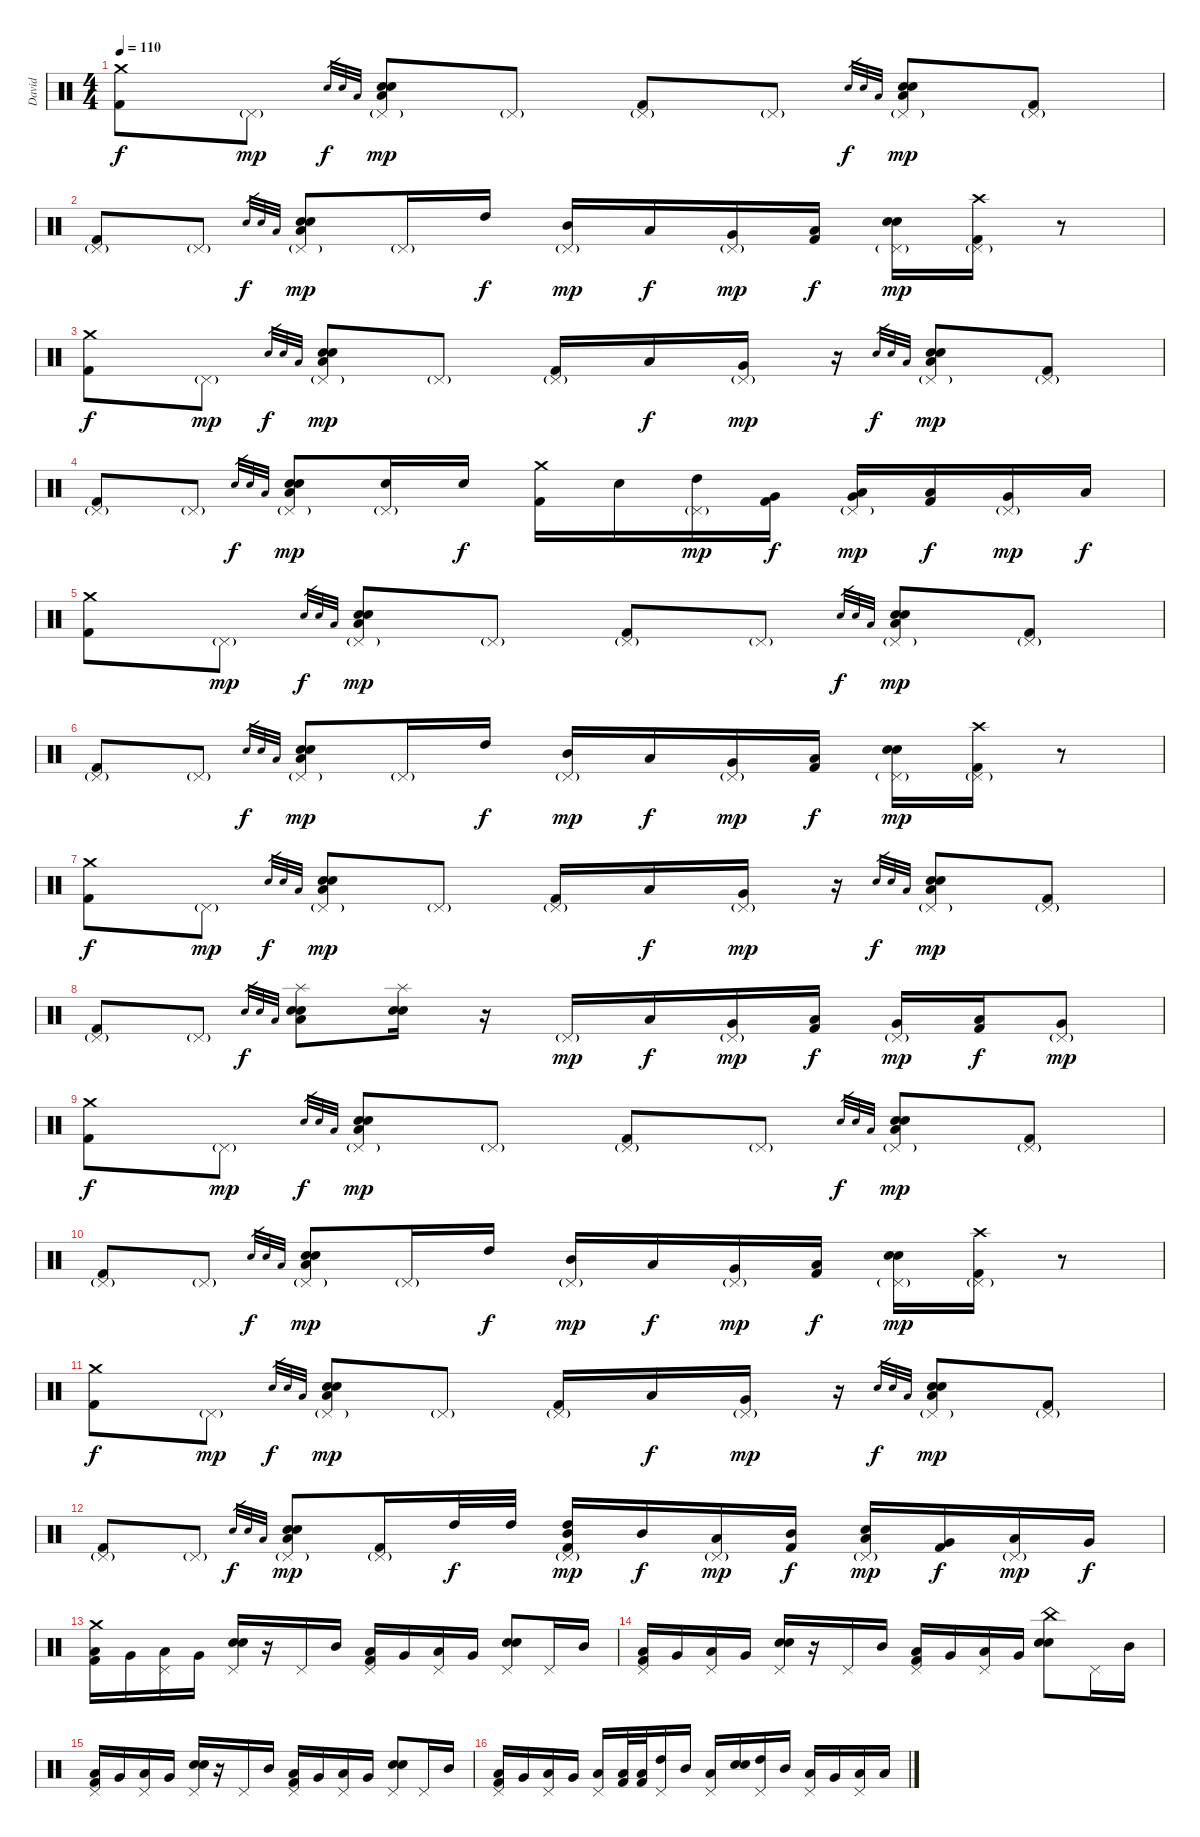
\track ("David" "David") {instrument percussion}
\staff {score}
\articulation defaults
\ts (4 4)
\tempo 110
\clef neutral
\ks c
("Crash medium (hit)" "Kick (hit) 2").8{dy f} "Pedal Hi-Hat (hit)"{g}.8{dy mp} "Snare (hit) 2".32{gr dy f} "Snare (hit) 2".32{gr} "Low Floor Tom (hit)".32{gr} ("Pedal Hi-Hat (hit)"{g} "Snare (hit) 2" "Snare (hit) 2" "Low Floor Tom (hit)").8{dy mp} "Pedal Hi-Hat (hit)"{g}.8 ("Pedal Hi-Hat (hit)"{g} "Kick (hit) 2").8 "Pedal Hi-Hat (hit)"{g}.8 "Snare (hit) 2".32{gr dy f} "Snare (hit) 2".32{gr} "Low Floor Tom (hit)".32{gr} ("Pedal Hi-Hat (hit)"{g} "Snare (hit) 2" "Snare (hit) 2" "Low Floor Tom (hit)").8{dy mp} ("Pedal Hi-Hat (hit)"{g} "Kick (hit) 2").8 |
("Pedal Hi-Hat (hit)"{g} "Kick (hit) 2").8 "Pedal Hi-Hat (hit)"{g}.8 "Snare (hit) 2".32{gr dy f} "Snare (hit) 2".32{gr} "Low Floor Tom (hit)".32{gr} ("Pedal Hi-Hat (hit)"{g} "Snare (hit) 2" "Snare (hit) 2" "Low Floor Tom (hit)").8{dy mp} "Pedal Hi-Hat (hit)"{g}.16 "High Tom (hit)".16{dy f} ("Pedal Hi-Hat (hit)"{g} "Mid Tom (hit)").16{dy mp} "Low Tom (hit)".16{dy f} ("Pedal Hi-Hat (hit)"{g} "Very Low Tom (hit)").16{dy mp} ("Low Floor Tom (hit)" "Kick (hit) 2").16{dy f} ("Pedal Hi-Hat (hit)"{g} "Snare (hit) 2" "Snare (hit) 2").16{dy mp} ("Crash high (hit)" "Pedal Hi-Hat (hit)"{g} "Kick (hit) 2").16 r.8 |
("Crash medium (hit)" "Kick (hit) 2").8{dy f} "Pedal Hi-Hat (hit)"{g}.8{dy mp} "Snare (hit) 2".32{gr dy f} "Snare (hit) 2".32{gr} "Low Floor Tom (hit)".32{gr} ("Pedal Hi-Hat (hit)"{g} "Snare (hit) 2" "Snare (hit) 2" "Low Floor Tom (hit)").8{dy mp} "Pedal Hi-Hat (hit)"{g}.8 ("Pedal Hi-Hat (hit)"{g} "Kick (hit) 2").16 "Low Tom (hit)".16{dy f} ("Pedal Hi-Hat (hit)"{g} "Very Low Tom (hit)").16{dy mp} r.16 "Snare (hit) 2".32{gr dy f} "Snare (hit) 2".32{gr} "Low Floor Tom (hit)".32{gr} ("Pedal Hi-Hat (hit)"{g} "Snare (hit) 2" "Snare (hit) 2" "Low Floor Tom (hit)").8{dy mp} ("Pedal Hi-Hat (hit)"{g} "Kick (hit) 2").8 |
("Pedal Hi-Hat (hit)"{g} "Kick (hit) 2").8 "Pedal Hi-Hat (hit)"{g}.8 "Snare (hit) 2".32{gr dy f} "Snare (hit) 2".32{gr} "Low Floor Tom (hit)".32{gr} ("Pedal Hi-Hat (hit)"{g} "Snare (hit) 2" "Snare (hit) 2" "Low Floor Tom (hit)").8{dy mp} ("Pedal Hi-Hat (hit)"{g} "Snare (hit) 2").16 "Snare (hit) 2".16{dy f} ("Crash medium (hit)" "Kick (hit) 2").16 "Snare (hit) 2".16 ("Pedal Hi-Hat (hit)"{g} "High Tom (hit)").16{dy mp} ("Very Low Tom (hit)" "Kick (hit) 2").16{dy f} ("Pedal Hi-Hat (hit)"{g} "Low Tom (hit)" "Very Low Tom (hit)").16{dy mp} ("Low Floor Tom (hit)" "Kick (hit) 2").16{dy f} ("Pedal Hi-Hat (hit)"{g} "Very Low Tom (hit)").16{dy mp} "Low Floor Tom (hit)".16{dy f} |
("Crash medium (hit)" "Kick (hit) 2").8 "Pedal Hi-Hat (hit)"{g}.8{dy mp} "Snare (hit) 2".32{gr dy f} "Snare (hit) 2".32{gr} "Low Floor Tom (hit)".32{gr} ("Pedal Hi-Hat (hit)"{g} "Snare (hit) 2" "Snare (hit) 2" "Low Floor Tom (hit)").8{dy mp} "Pedal Hi-Hat (hit)"{g}.8 ("Pedal Hi-Hat (hit)"{g} "Kick (hit) 2").8 "Pedal Hi-Hat (hit)"{g}.8 "Snare (hit) 2".32{gr dy f} "Snare (hit) 2".32{gr} "Low Floor Tom (hit)".32{gr} ("Pedal Hi-Hat (hit)"{g} "Snare (hit) 2" "Snare (hit) 2" "Low Floor Tom (hit)").8{dy mp} ("Pedal Hi-Hat (hit)"{g} "Kick (hit) 2").8 |
("Pedal Hi-Hat (hit)"{g} "Kick (hit) 2").8 "Pedal Hi-Hat (hit)"{g}.8 "Snare (hit) 2".32{gr dy f} "Snare (hit) 2".32{gr} "Low Floor Tom (hit)".32{gr} ("Pedal Hi-Hat (hit)"{g} "Snare (hit) 2" "Snare (hit) 2" "Low Floor Tom (hit)").8{dy mp} "Pedal Hi-Hat (hit)"{g}.16 "High Tom (hit)".16{dy f} ("Pedal Hi-Hat (hit)"{g} "Mid Tom (hit)").16{dy mp} "Low Tom (hit)".16{dy f} ("Pedal Hi-Hat (hit)"{g} "Very Low Tom (hit)").16{dy mp} ("Low Floor Tom (hit)" "Kick (hit) 2").16{dy f} ("Pedal Hi-Hat (hit)"{g} "Snare (hit) 2" "Snare (hit) 2").16{dy mp} ("Crash high (hit)" "Pedal Hi-Hat (hit)"{g} "Kick (hit) 2").16 r.8 |
("Crash medium (hit)" "Kick (hit) 2").8{dy f} "Pedal Hi-Hat (hit)"{g}.8{dy mp} "Snare (hit) 2".32{gr dy f} "Snare (hit) 2".32{gr} "Low Floor Tom (hit)".32{gr} ("Pedal Hi-Hat (hit)"{g} "Snare (hit) 2" "Snare (hit) 2" "Low Floor Tom (hit)").8{dy mp} "Pedal Hi-Hat (hit)"{g}.8 ("Pedal Hi-Hat (hit)"{g} "Kick (hit) 2").16 "Low Tom (hit)".16{dy f} ("Pedal Hi-Hat (hit)"{g} "Very Low Tom (hit)").16{dy mp} r.16 "Snare (hit) 2".32{gr dy f} "Snare (hit) 2".32{gr} "Low Floor Tom (hit)".32{gr} ("Pedal Hi-Hat (hit)"{g} "Snare (hit) 2" "Snare (hit) 2" "Low Floor Tom (hit)").8{dy mp} ("Pedal Hi-Hat (hit)"{g} "Kick (hit) 2").8 |
("Pedal Hi-Hat (hit)"{g} "Kick (hit) 2").8 "Pedal Hi-Hat (hit)"{g}.8 "Snare (hit) 2".32{gr dy f} "Snare (hit) 2".32{gr} "Low Floor Tom (hit)".32{gr} ("Splash (hit)" "Snare (hit) 2" "Snare (hit) 2" "Low Floor Tom (hit)").8 ("Splash (hit)" "Snare (hit) 2" "Snare (hit) 2").16 r.16 "Pedal Hi-Hat (hit)"{g}.16{dy mp} "Low Tom (hit)".16{dy f} ("Pedal Hi-Hat (hit)"{g} "Very Low Tom (hit)").16{dy mp} ("Low Floor Tom (hit)" "Kick (hit) 2").16{dy f} ("Pedal Hi-Hat (hit)"{g} "Very Low Tom (hit)").16{dy mp} ("Low Floor Tom (hit)" "Kick (hit) 2").16{dy f} ("Pedal Hi-Hat (hit)"{g} "Very Low Tom (hit)").8{dy mp} |
("Crash medium (hit)" "Kick (hit) 2").8{dy f} "Pedal Hi-Hat (hit)"{g}.8{dy mp} "Snare (hit) 2".32{gr dy f} "Snare (hit) 2".32{gr} "Low Floor Tom (hit)".32{gr} ("Pedal Hi-Hat (hit)"{g} "Snare (hit) 2" "Snare (hit) 2" "Low Floor Tom (hit)").8{dy mp} "Pedal Hi-Hat (hit)"{g}.8 ("Pedal Hi-Hat (hit)"{g} "Kick (hit) 2").8 "Pedal Hi-Hat (hit)"{g}.8 "Snare (hit) 2".32{gr dy f} "Snare (hit) 2".32{gr} "Low Floor Tom (hit)".32{gr} ("Pedal Hi-Hat (hit)"{g} "Snare (hit) 2" "Snare (hit) 2" "Low Floor Tom (hit)").8{dy mp} ("Pedal Hi-Hat (hit)"{g} "Kick (hit) 2").8 |
("Pedal Hi-Hat (hit)"{g} "Kick (hit) 2").8 "Pedal Hi-Hat (hit)"{g}.8 "Snare (hit) 2".32{gr dy f} "Snare (hit) 2".32{gr} "Low Floor Tom (hit)".32{gr} ("Pedal Hi-Hat (hit)"{g} "Snare (hit) 2" "Snare (hit) 2" "Low Floor Tom (hit)").8{dy mp} "Pedal Hi-Hat (hit)"{g}.16 "High Tom (hit)".16{dy f} ("Pedal Hi-Hat (hit)"{g} "Mid Tom (hit)").16{dy mp} "Low Tom (hit)".16{dy f} ("Pedal Hi-Hat (hit)"{g} "Very Low Tom (hit)").16{dy mp} ("Low Floor Tom (hit)" "Kick (hit) 2").16{dy f} ("Pedal Hi-Hat (hit)"{g} "Snare (hit) 2" "Snare (hit) 2").16{dy mp} ("Crash high (hit)" "Pedal Hi-Hat (hit)"{g} "Kick (hit) 2").16 r.8 |
("Crash medium (hit)" "Kick (hit) 2").8{dy f} "Pedal Hi-Hat (hit)"{g}.8{dy mp} "Snare (hit) 2".32{gr dy f} "Snare (hit) 2".32{gr} "Low Floor Tom (hit)".32{gr} ("Pedal Hi-Hat (hit)"{g} "Snare (hit) 2" "Snare (hit) 2" "Low Floor Tom (hit)").8{dy mp} "Pedal Hi-Hat (hit)"{g}.8 ("Pedal Hi-Hat (hit)"{g} "Kick (hit) 2").16 "Low Tom (hit)".16{dy f} ("Pedal Hi-Hat (hit)"{g} "Very Low Tom (hit)").16{dy mp} r.16 "Snare (hit) 2".32{gr dy f} "Snare (hit) 2".32{gr} "Low Floor Tom (hit)".32{gr} ("Pedal Hi-Hat (hit)"{g} "Snare (hit) 2" "Snare (hit) 2" "Low Floor Tom (hit)").8{dy mp} ("Pedal Hi-Hat (hit)"{g} "Kick (hit) 2").8 |
("Pedal Hi-Hat (hit)"{g} "Kick (hit) 2").8 "Pedal Hi-Hat (hit)"{g}.8 "Snare (hit) 2".32{gr dy f} "Snare (hit) 2".32{gr} "Low Floor Tom (hit)".32{gr} ("Pedal Hi-Hat (hit)"{g} "Snare (hit) 2" "Snare (hit) 2" "Low Floor Tom (hit)").8{dy mp} ("Pedal Hi-Hat (hit)"{g} "Kick (hit) 2").16 "High Tom (hit)".32{dy f} "High Tom (hit)".32 ("Pedal Hi-Hat (hit)"{g} "High Tom (hit)" "Mid Tom (hit)" "Kick (hit) 2").16{dy mp} "Mid Tom (hit)".16{dy f} ("Pedal Hi-Hat (hit)"{g} "Low Tom (hit)").16{dy mp} ("Mid Tom (hit)" "Kick (hit) 2").16{dy f} ("Pedal Hi-Hat (hit)"{g} "Snare (hit) 2" "Low Tom (hit)").16{dy mp} ("Very Low Tom (hit)" "Kick (hit) 2").16{dy f} ("Pedal Hi-Hat (hit)"{g} "Low Floor Tom (hit)").16{dy mp} "Very Low Tom (hit)".16{dy f} |
("Crash medium (hit)" "Low Tom (hit)" "Kick (hit) 2").16 "Very Low Tom (hit)".16 ("Pedal Hi-Hat (hit)" "Low Floor Tom (hit)").16 "Very Low Tom (hit)".16 ("Pedal Hi-Hat (hit)" "Snare (hit) 2" "Snare (hit) 2").16 r.16 "Pedal Hi-Hat (hit)".16 "Mid Tom (hit)".16 ("Pedal Hi-Hat (hit)" "Low Tom (hit)" "Kick (hit) 2").16 "Very Low Tom (hit)".16 ("Pedal Hi-Hat (hit)" "Low Floor Tom (hit)").16 "Very Low Tom (hit)".16 ("Pedal Hi-Hat (hit)" "Snare (hit) 2" "Snare (hit) 2").8 "Pedal Hi-Hat (hit)".16 "Mid Tom (hit)".16 |
("Pedal Hi-Hat (hit)" "Low Tom (hit)" "Kick (hit) 2").16 "Very Low Tom (hit)".16 ("Pedal Hi-Hat (hit)" "Low Floor Tom (hit)").16 "Very Low Tom (hit)".16 ("Pedal Hi-Hat (hit)" "Snare (hit) 2" "Snare (hit) 2").16 r.16 "Pedal Hi-Hat (hit)".16 "Mid Tom (hit)".16 ("Pedal Hi-Hat (hit)" "Low Tom (hit)" "Kick (hit) 2").16 "Very Low Tom (hit)".16 ("Pedal Hi-Hat (hit)" "Low Floor Tom (hit)").16 "Very Low Tom (hit)".16 ("China (hit)" "Snare (hit) 2" "Snare (hit) 2").8 "Pedal Hi-Hat (hit)".16 "Mid Tom (hit)".16 |
("Pedal Hi-Hat (hit)" "Low Tom (hit)" "Kick (hit) 2").16 "Very Low Tom (hit)".16 ("Pedal Hi-Hat (hit)" "Low Floor Tom (hit)").16 "Very Low Tom (hit)".16 ("Pedal Hi-Hat (hit)" "Snare (hit) 2" "Snare (hit) 2").16 r.16 "Pedal Hi-Hat (hit)".16 "Mid Tom (hit)".16 ("Pedal Hi-Hat (hit)" "Low Tom (hit)" "Kick (hit) 2").16 "Very Low Tom (hit)".16 ("Pedal Hi-Hat (hit)" "Low Floor Tom (hit)").16 "Very Low Tom (hit)".16 ("Pedal Hi-Hat (hit)" "Snare (hit) 2" "Snare (hit) 2").8 "Pedal Hi-Hat (hit)".16 "Mid Tom (hit)".16 |
("Pedal Hi-Hat (hit)" "Low Tom (hit)" "Kick (hit) 2").16 "Very Low Tom (hit)".16 ("Pedal Hi-Hat (hit)" "Low Floor Tom (hit)").16 "Very Low Tom (hit)".16 ("Pedal Hi-Hat (hit)" "Low Floor Tom (hit)").16 ("Low Tom (hit)" "Kick (hit) 2").32 ("Low Tom (hit)" "Kick (hit) 2").32 ("Pedal Hi-Hat (hit)" "High Tom (hit)").16 "Mid Tom (hit)".16 ("Pedal Hi-Hat (hit)" "Low Tom (hit)").16 ("Snare (hit) 2" "Snare (hit) 2").16 ("Pedal Hi-Hat (hit)" "High Tom (hit)").16 "Mid Tom (hit)".16 ("Pedal Hi-Hat (hit)" "Low Tom (hit)").16 "Very Low Tom (hit)".16 ("Pedal Hi-Hat (hit)" "Low Floor Tom (hit)").16 "Low Floor Tom (hit)".16
